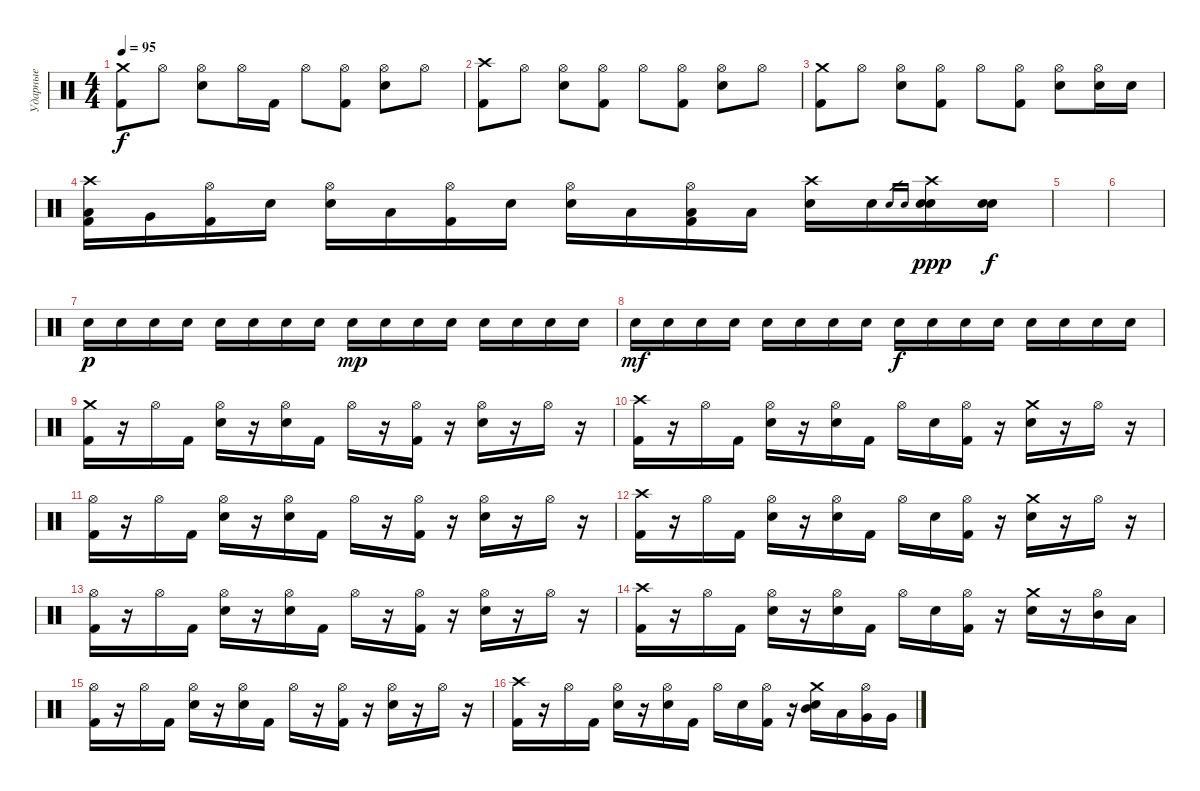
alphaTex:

\track ("Ударные" "Ударные") {instrument percussion}
\staff {score}
\articulation defaults
\ts (4 4)
\tempo 95
\clef neutral
\ks c
("Crash medium (hit)" "Kick (hit) 2").8{dy f} "Hi-Hat (open)".8 ("Hi-Hat (open)" "Snare (hit) 2").8 "Hi-Hat (open)".16 "Kick (hit) 2".16 "Hi-Hat (open)".8 ("Hi-Hat (open)" "Kick (hit) 2").8 ("Hi-Hat (open)" "Snare (hit) 2").8 "Hi-Hat (open)".8 |
("Crash high (hit)" "Kick (hit) 2").8 "Hi-Hat (open)".8 ("Hi-Hat (open)" "Snare (hit) 2").8 ("Hi-Hat (open)" "Kick (hit) 2").8 "Hi-Hat (open)".8 ("Hi-Hat (open)" "Kick (hit) 2").8 ("Hi-Hat (open)" "Snare (hit) 2").8 "Hi-Hat (open)".8 |
("Crash medium (hit)" "Kick (hit) 2").8 "Hi-Hat (open)".8 ("Hi-Hat (open)" "Snare (hit) 2").8 ("Hi-Hat (open)" "Kick (hit) 2").8 "Hi-Hat (open)".8 ("Hi-Hat (open)" "Kick (hit) 2").8 ("Hi-Hat (open)" "Snare (hit) 2").8 ("Hi-Hat (open)" "Snare (hit) 2").16 "Snare (hit) 2".16 |
("Crash high (hit)" "Low Tom (hit)" "Kick (hit) 2").16 "Very Low Tom (hit)".16 ("Hi-Hat (open)" "Kick (hit) 2").16 "Snare (hit) 2".16 ("Hi-Hat (open)" "Snare (hit) 2").16 "Low Tom (hit)".16 ("Hi-Hat (open)" "Kick (hit) 2").16 "Snare (hit) 2".16 ("Hi-Hat (open)" "Snare (hit) 2").16 "Low Tom (hit)".16 ("Hi-Hat (open)" "Low Tom (hit)" "Kick (hit) 2").16 "Low Tom (hit)".16 ("Crash high (hit)" "Snare (hit) 2").16 "Snare (hit) 2".16 "Electric Snare (hit)".16{gr} "Snare (hit) 2".16{gr} ("Crash high (hit)" "Electric Snare (hit)" "Snare (hit) 2").16{dy ppp} ("Electric Snare (hit)" "Snare (hit) 2").16{dy f} |
|
|
"Snare (hit) 2".16{dy p} "Snare (hit) 2".16 "Snare (hit) 2".16 "Snare (hit) 2".16 "Snare (hit) 2".16 "Snare (hit) 2".16 "Snare (hit) 2".16 "Snare (hit) 2".16 "Snare (hit) 2".16{dy mp} "Snare (hit) 2".16 "Snare (hit) 2".16 "Snare (hit) 2".16 "Snare (hit) 2".16 "Snare (hit) 2".16 "Snare (hit) 2".16 "Snare (hit) 2".16 |
"Snare (hit) 2".16{dy mf} "Snare (hit) 2".16 "Snare (hit) 2".16 "Snare (hit) 2".16 "Snare (hit) 2".16 "Snare (hit) 2".16 "Snare (hit) 2".16 "Snare (hit) 2".16 "Snare (hit) 2".16{dy f} "Snare (hit) 2".16 "Snare (hit) 2".16 "Snare (hit) 2".16 "Snare (hit) 2".16 "Snare (hit) 2".16 "Snare (hit) 2".16 "Snare (hit) 2".16 |
("Crash medium (hit)" "Kick (hit) 2").16 r.16 "Hi-Hat (open)".16 "Kick (hit) 2".16 ("Hi-Hat (open)" "Snare (hit) 2").16 r.16 ("Hi-Hat (open)" "Snare (hit) 2").16 "Kick (hit) 2".16 "Hi-Hat (open)".16 r.16 ("Hi-Hat (open)" "Kick (hit) 2").16 r.16 ("Hi-Hat (open)" "Snare (hit) 2").16 r.16 "Hi-Hat (open)".16 r.16 |
("Crash high (hit)" "Kick (hit) 2").16 r.16 "Hi-Hat (open)".16 "Kick (hit) 2".16 ("Hi-Hat (open)" "Snare (hit) 2").16 r.16 ("Hi-Hat (open)" "Snare (hit) 2").16 "Kick (hit) 2".16 "Hi-Hat (open)".16 "Snare (hit) 2".16 ("Hi-Hat (open)" "Kick (hit) 2").16 r.16 ("Crash medium (hit)" "Snare (hit) 2").16 r.16 "Hi-Hat (open)".16 r.16 |
("Hi-Hat (open)" "Kick (hit) 2").16 r.16 "Hi-Hat (open)".16 "Kick (hit) 2".16 ("Hi-Hat (open)" "Snare (hit) 2").16 r.16 ("Hi-Hat (open)" "Snare (hit) 2").16 "Kick (hit) 2".16 "Hi-Hat (open)".16 r.16 ("Hi-Hat (open)" "Kick (hit) 2").16 r.16 ("Hi-Hat (open)" "Snare (hit) 2").16 r.16 "Hi-Hat (open)".16 r.16 |
("Crash high (hit)" "Kick (hit) 2").16 r.16 "Hi-Hat (open)".16 "Kick (hit) 2".16 ("Hi-Hat (open)" "Snare (hit) 2").16 r.16 ("Hi-Hat (open)" "Snare (hit) 2").16 "Kick (hit) 2".16 "Hi-Hat (open)".16 "Snare (hit) 2".16 ("Hi-Hat (open)" "Kick (hit) 2").16 r.16 ("Crash medium (hit)" "Snare (hit) 2").16 r.16 "Hi-Hat (open)".16 r.16 |
("Hi-Hat (open)" "Kick (hit) 2").16 r.16 "Hi-Hat (open)".16 "Kick (hit) 2".16 ("Hi-Hat (open)" "Snare (hit) 2").16 r.16 ("Hi-Hat (open)" "Snare (hit) 2").16 "Kick (hit) 2".16 "Hi-Hat (open)".16 r.16 ("Hi-Hat (open)" "Kick (hit) 2").16 r.16 ("Hi-Hat (open)" "Snare (hit) 2").16 r.16 "Hi-Hat (open)".16 r.16 |
("Crash high (hit)" "Kick (hit) 2").16 r.16 "Hi-Hat (open)".16 "Kick (hit) 2".16 ("Hi-Hat (open)" "Snare (hit) 2").16 r.16 ("Hi-Hat (open)" "Snare (hit) 2").16 "Kick (hit) 2".16 "Hi-Hat (open)".16 "Snare (hit) 2".16 ("Hi-Hat (open)" "Kick (hit) 2").16 r.16 ("Crash medium (hit)" "Snare (hit) 2").16 r.16 ("Hi-Hat (open)" "Mid Tom (hit)").16 "Low Tom (hit)".16 |
("Hi-Hat (open)" "Kick (hit) 2").16 r.16 "Hi-Hat (open)".16 "Kick (hit) 2".16 ("Hi-Hat (open)" "Snare (hit) 2").16 r.16 ("Hi-Hat (open)" "Snare (hit) 2").16 "Kick (hit) 2".16 "Hi-Hat (open)".16 r.16 ("Hi-Hat (open)" "Kick (hit) 2").16 r.16 ("Hi-Hat (open)" "Snare (hit) 2").16 r.16 "Hi-Hat (open)".16 r.16 |
("Crash high (hit)" "Kick (hit) 2").16 r.16 "Hi-Hat (open)".16 "Kick (hit) 2".16 ("Hi-Hat (open)" "Snare (hit) 2").16 r.16 ("Hi-Hat (open)" "Snare (hit) 2").16 "Kick (hit) 2".16 "Hi-Hat (open)".16 "Snare (hit) 2".16 ("Hi-Hat (open)" "Kick (hit) 2").16 r.16 ("Crash medium (hit)" "Mid Tom (hit)" "Snare (hit) 2").16 "Low Tom (hit)".16 ("Hi-Hat (open)" "Very Low Tom (hit)").16 "Very Low Tom (hit)".16
